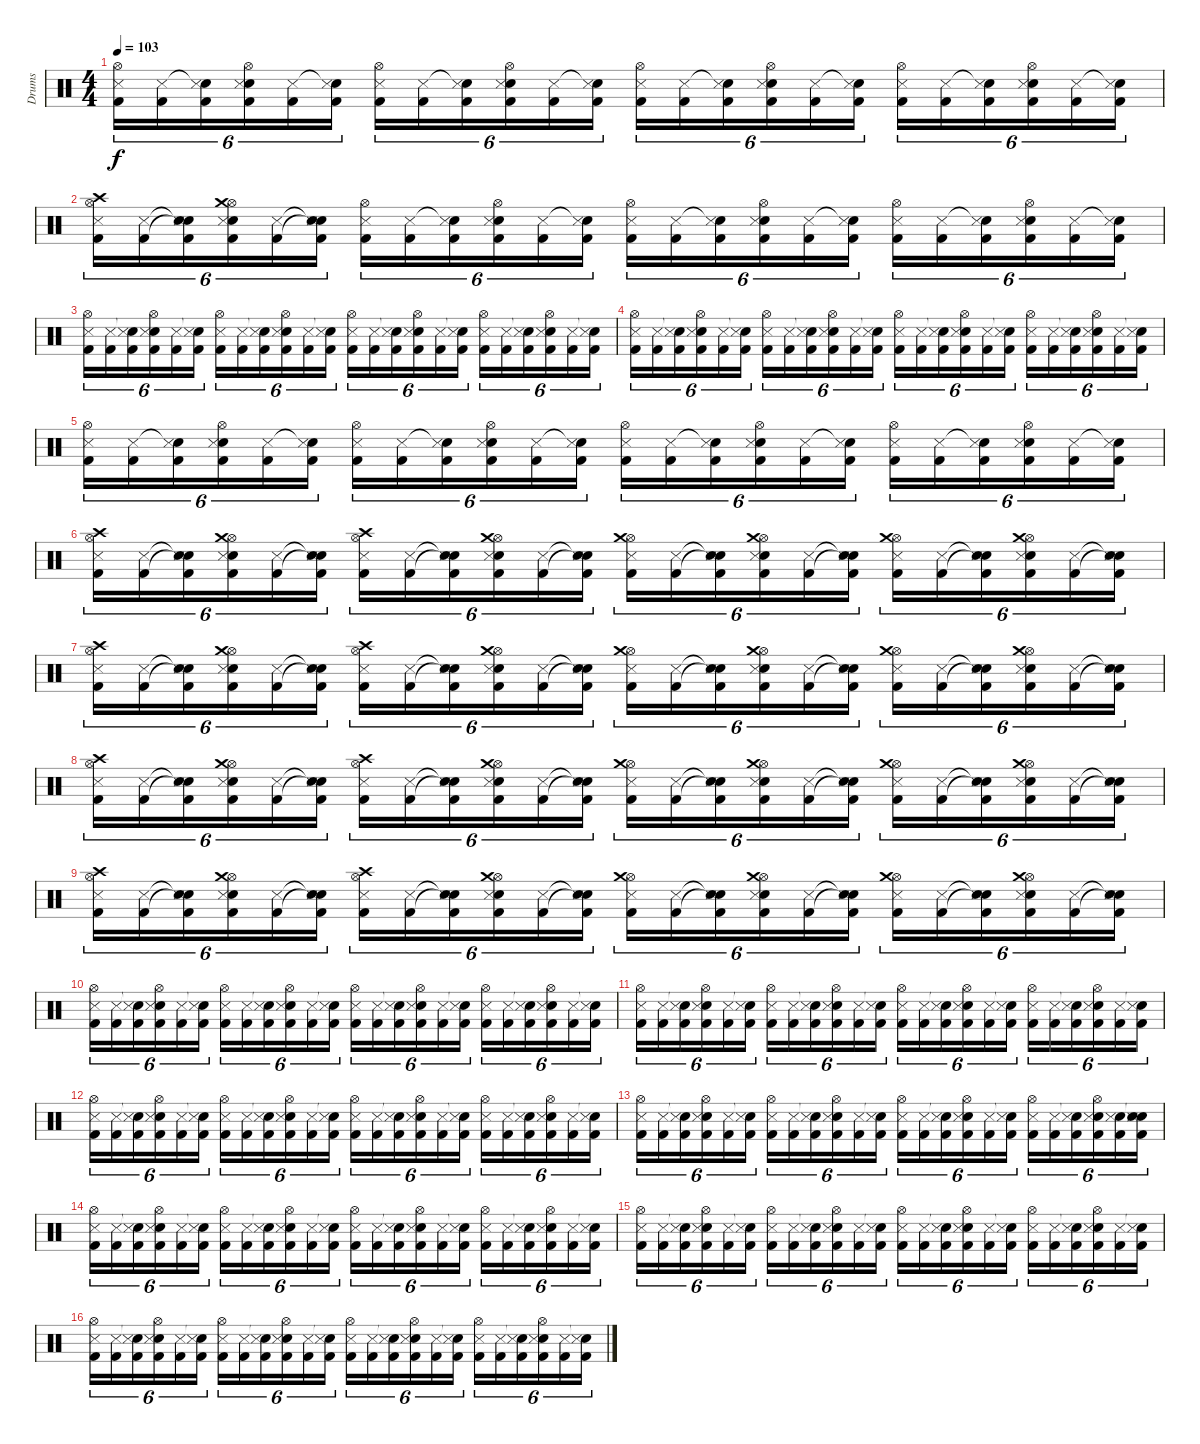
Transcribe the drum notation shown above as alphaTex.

\track ("Drums" "Drums") {instrument percussion}
\staff {score}
\articulation defaults
\ts (4 4)
\tempo 103
\clef neutral
\ks c
("Hi-Hat (open)" "Snare (side stick) 3" "Kick (hit) 2").16{tu (6 4) dy f} ("Snare (side stick) 3" "Kick (hit) 2").16{tu (6 4)} ("Snare (hit)"{t} "Snare (side stick) 3" "Kick (hit) 2").16{tu (6 4)} ("Hi-Hat (open)" "Electric Snare (hit)" "Snare (side stick) 3" "Kick (hit) 2").16{tu (6 4)} ("Snare (side stick) 3" "Kick (hit) 2").16{tu (6 4)} ("Snare (hit)"{t} "Snare (side stick) 3" "Kick (hit) 2").16{tu (6 4)} ("Hi-Hat (open)" "Snare (side stick) 3" "Kick (hit) 2").16{tu (6 4)} ("Snare (side stick) 3" "Kick (hit) 2").16{tu (6 4)} ("Snare (hit)"{t} "Snare (side stick) 3" "Kick (hit) 2").16{tu (6 4)} ("Hi-Hat (open)" "Electric Snare (hit)" "Snare (side stick) 3" "Kick (hit) 2").16{tu (6 4)} ("Snare (side stick) 3" "Kick (hit) 2").16{tu (6 4)} ("Snare (hit)"{t} "Snare (side stick) 3" "Kick (hit) 2").16{tu (6 4)} ("Hi-Hat (open)" "Snare (side stick) 3" "Kick (hit) 2").16{tu (6 4)} ("Snare (side stick) 3" "Kick (hit) 2").16{tu (6 4)} ("Snare (hit)"{t} "Snare (side stick) 3" "Kick (hit) 2").16{tu (6 4)} ("Hi-Hat (open)" "Electric Snare (hit)" "Snare (side stick) 3" "Kick (hit) 2").16{tu (6 4)} ("Snare (side stick) 3" "Kick (hit) 2").16{tu (6 4)} ("Snare (hit)"{t} "Snare (side stick) 3" "Kick (hit) 2").16{tu (6 4)} ("Hi-Hat (open)" "Snare (side stick) 3" "Kick (hit) 2").16{tu (6 4)} ("Snare (side stick) 3" "Kick (hit) 2").16{tu (6 4)} ("Snare (hit)"{t} "Snare (side stick) 3" "Kick (hit) 2").16{tu (6 4)} ("Hi-Hat (open)" "Electric Snare (hit)" "Snare (side stick) 3" "Kick (hit) 2").16{tu (6 4)} ("Snare (side stick) 3" "Kick (hit) 2").16{tu (6 4)} ("Snare (hit)"{t} "Snare (side stick) 3" "Kick (hit) 2").16{tu (6 4)} |
("Hi-Hat (open)" "Crash high (hit)" "Snare (side stick) 3" "Kick (hit) 2").16{tu (6 4)} ("Snare (side stick) 3" "Kick (hit) 2").16{tu (6 4)} ("Snare (hit)"{t} "Snare (hit)"{t} "Snare (side stick) 3" "Kick (hit) 2").16{tu (6 4)} ("Hi-Hat (open)" "Electric Snare (hit)" "Crash medium (hit)" "Snare (side stick) 3" "Kick (hit) 2").16{tu (6 4)} ("Snare (side stick) 3" "Kick (hit) 2").16{tu (6 4)} ("Snare (hit)"{t} "Snare (hit)"{t} "Snare (side stick) 3" "Kick (hit) 2").16{tu (6 4)} ("Hi-Hat (open)" "Snare (side stick) 3" "Kick (hit) 2").16{tu (6 4)} ("Snare (side stick) 3" "Kick (hit) 2").16{tu (6 4)} ("Snare (hit)"{t} "Snare (side stick) 3" "Kick (hit) 2").16{tu (6 4)} ("Hi-Hat (open)" "Electric Snare (hit)" "Snare (side stick) 3" "Kick (hit) 2").16{tu (6 4)} ("Snare (side stick) 3" "Kick (hit) 2").16{tu (6 4)} ("Snare (hit)"{t} "Snare (side stick) 3" "Kick (hit) 2").16{tu (6 4)} ("Hi-Hat (open)" "Snare (side stick) 3" "Kick (hit) 2").16{tu (6 4)} ("Snare (side stick) 3" "Kick (hit) 2").16{tu (6 4)} ("Snare (hit)"{t} "Snare (side stick) 3" "Kick (hit) 2").16{tu (6 4)} ("Hi-Hat (open)" "Electric Snare (hit)" "Snare (side stick) 3" "Kick (hit) 2").16{tu (6 4)} ("Snare (side stick) 3" "Kick (hit) 2").16{tu (6 4)} ("Snare (hit)"{t} "Snare (side stick) 3" "Kick (hit) 2").16{tu (6 4)} ("Hi-Hat (open)" "Snare (side stick) 3" "Kick (hit) 2").16{tu (6 4)} ("Snare (side stick) 3" "Kick (hit) 2").16{tu (6 4)} ("Snare (hit)"{t} "Snare (side stick) 3" "Kick (hit) 2").16{tu (6 4)} ("Hi-Hat (open)" "Electric Snare (hit)" "Snare (side stick) 3" "Kick (hit) 2").16{tu (6 4)} ("Snare (side stick) 3" "Kick (hit) 2").16{tu (6 4)} ("Snare (hit)"{t} "Snare (side stick) 3" "Kick (hit) 2").16{tu (6 4)} |
("Hi-Hat (open)" "Snare (side stick) 3" "Kick (hit) 2").16{tu (6 4)} ("Snare (side stick) 3" "Kick (hit) 2").16{tu (6 4)} ("Snare (hit)"{t} "Snare (side stick) 3" "Kick (hit) 2").16{tu (6 4)} ("Hi-Hat (open)" "Electric Snare (hit)" "Snare (side stick) 3" "Kick (hit) 2").16{tu (6 4)} ("Snare (side stick) 3" "Kick (hit) 2").16{tu (6 4)} ("Snare (hit)"{t} "Snare (side stick) 3" "Kick (hit) 2").16{tu (6 4)} ("Hi-Hat (open)" "Snare (side stick) 3" "Kick (hit) 2").16{tu (6 4)} ("Snare (side stick) 3" "Kick (hit) 2").16{tu (6 4)} ("Snare (hit)"{t} "Snare (side stick) 3" "Kick (hit) 2").16{tu (6 4)} ("Hi-Hat (open)" "Electric Snare (hit)" "Snare (side stick) 3" "Kick (hit) 2").16{tu (6 4)} ("Snare (side stick) 3" "Kick (hit) 2").16{tu (6 4)} ("Snare (hit)"{t} "Snare (side stick) 3" "Kick (hit) 2").16{tu (6 4)} ("Hi-Hat (open)" "Snare (side stick) 3" "Kick (hit) 2").16{tu (6 4)} ("Snare (side stick) 3" "Kick (hit) 2").16{tu (6 4)} ("Snare (hit)"{t} "Snare (side stick) 3" "Kick (hit) 2").16{tu (6 4)} ("Hi-Hat (open)" "Electric Snare (hit)" "Snare (side stick) 3" "Kick (hit) 2").16{tu (6 4)} ("Snare (side stick) 3" "Kick (hit) 2").16{tu (6 4)} ("Snare (hit)"{t} "Snare (side stick) 3" "Kick (hit) 2").16{tu (6 4)} ("Hi-Hat (open)" "Snare (side stick) 3" "Kick (hit) 2").16{tu (6 4)} ("Snare (side stick) 3" "Kick (hit) 2").16{tu (6 4)} ("Snare (hit)"{t} "Snare (side stick) 3" "Kick (hit) 2").16{tu (6 4)} ("Hi-Hat (open)" "Electric Snare (hit)" "Snare (side stick) 3" "Kick (hit) 2").16{tu (6 4)} ("Snare (side stick) 3" "Kick (hit) 2").16{tu (6 4)} ("Snare (hit)"{t} "Snare (side stick) 3" "Kick (hit) 2").16{tu (6 4)} |
("Hi-Hat (open)" "Snare (side stick) 3" "Kick (hit) 2").16{tu (6 4)} ("Snare (side stick) 3" "Kick (hit) 2").16{tu (6 4)} ("Snare (hit)"{t} "Snare (side stick) 3" "Kick (hit) 2").16{tu (6 4)} ("Hi-Hat (open)" "Electric Snare (hit)" "Snare (side stick) 3" "Kick (hit) 2").16{tu (6 4)} ("Snare (side stick) 3" "Kick (hit) 2").16{tu (6 4)} ("Snare (hit)"{t} "Snare (side stick) 3" "Kick (hit) 2").16{tu (6 4)} ("Hi-Hat (open)" "Snare (side stick) 3" "Kick (hit) 2").16{tu (6 4)} ("Snare (side stick) 3" "Kick (hit) 2").16{tu (6 4)} ("Snare (hit)"{t} "Snare (side stick) 3" "Kick (hit) 2").16{tu (6 4)} ("Hi-Hat (open)" "Electric Snare (hit)" "Snare (side stick) 3" "Kick (hit) 2").16{tu (6 4)} ("Snare (side stick) 3" "Kick (hit) 2").16{tu (6 4)} ("Snare (hit)"{t} "Snare (side stick) 3" "Kick (hit) 2").16{tu (6 4)} ("Hi-Hat (open)" "Snare (side stick) 3" "Kick (hit) 2").16{tu (6 4)} ("Snare (side stick) 3" "Kick (hit) 2").16{tu (6 4)} ("Snare (hit)"{t} "Snare (side stick) 3" "Kick (hit) 2").16{tu (6 4)} ("Hi-Hat (open)" "Electric Snare (hit)" "Snare (side stick) 3" "Kick (hit) 2").16{tu (6 4)} ("Snare (side stick) 3" "Kick (hit) 2").16{tu (6 4)} ("Snare (hit)"{t} "Snare (side stick) 3" "Kick (hit) 2").16{tu (6 4)} ("Hi-Hat (open)" "Snare (side stick) 3" "Kick (hit) 2").16{tu (6 4)} ("Snare (side stick) 3" "Kick (hit) 2").16{tu (6 4)} ("Snare (hit)"{t} "Snare (side stick) 3" "Kick (hit) 2").16{tu (6 4)} ("Hi-Hat (open)" "Electric Snare (hit)" "Snare (side stick) 3" "Kick (hit) 2").16{tu (6 4)} ("Snare (side stick) 3" "Kick (hit) 2").16{tu (6 4)} ("Snare (hit)"{t} "Snare (side stick) 3" "Kick (hit) 2").16{tu (6 4)} |
("Hi-Hat (open)" "Snare (side stick) 3" "Kick (hit) 2").16{tu (6 4)} ("Snare (side stick) 3" "Kick (hit) 2").16{tu (6 4)} ("Snare (hit)"{t} "Snare (side stick) 3" "Kick (hit) 2").16{tu (6 4)} ("Hi-Hat (open)" "Electric Snare (hit)" "Snare (side stick) 3" "Kick (hit) 2").16{tu (6 4)} ("Snare (side stick) 3" "Kick (hit) 2").16{tu (6 4)} ("Snare (hit)"{t} "Snare (side stick) 3" "Kick (hit) 2").16{tu (6 4)} ("Hi-Hat (open)" "Snare (side stick) 3" "Kick (hit) 2").16{tu (6 4)} ("Snare (side stick) 3" "Kick (hit) 2").16{tu (6 4)} ("Snare (hit)"{t} "Snare (side stick) 3" "Kick (hit) 2").16{tu (6 4)} ("Hi-Hat (open)" "Electric Snare (hit)" "Snare (side stick) 3" "Kick (hit) 2").16{tu (6 4)} ("Snare (side stick) 3" "Kick (hit) 2").16{tu (6 4)} ("Snare (hit)"{t} "Snare (side stick) 3" "Kick (hit) 2").16{tu (6 4)} ("Hi-Hat (open)" "Snare (side stick) 3" "Kick (hit) 2").16{tu (6 4)} ("Snare (side stick) 3" "Kick (hit) 2").16{tu (6 4)} ("Snare (hit)"{t} "Snare (side stick) 3" "Kick (hit) 2").16{tu (6 4)} ("Hi-Hat (open)" "Electric Snare (hit)" "Snare (side stick) 3" "Kick (hit) 2").16{tu (6 4)} ("Snare (side stick) 3" "Kick (hit) 2").16{tu (6 4)} ("Snare (hit)"{t} "Snare (side stick) 3" "Kick (hit) 2").16{tu (6 4)} ("Hi-Hat (open)" "Snare (side stick) 3" "Kick (hit) 2").16{tu (6 4)} ("Snare (side stick) 3" "Kick (hit) 2").16{tu (6 4)} ("Snare (hit)"{t} "Snare (side stick) 3" "Kick (hit) 2").16{tu (6 4)} ("Hi-Hat (open)" "Electric Snare (hit)" "Snare (side stick) 3" "Kick (hit) 2").16{tu (6 4)} ("Snare (side stick) 3" "Kick (hit) 2").16{tu (6 4)} ("Snare (hit)"{t} "Snare (side stick) 3" "Kick (hit) 2").16{tu (6 4)} |
("Hi-Hat (open)" "Crash high (hit)" "Snare (side stick) 3" "Kick (hit) 2").16{tu (6 4)} ("Snare (side stick) 3" "Kick (hit) 2").16{tu (6 4)} ("Snare (hit)"{t} "Snare (hit)"{t} "Snare (side stick) 3" "Kick (hit) 2").16{tu (6 4)} ("Hi-Hat (open)" "Electric Snare (hit)" "Crash medium (hit)" "Snare (side stick) 3" "Kick (hit) 2").16{tu (6 4)} ("Snare (side stick) 3" "Kick (hit) 2").16{tu (6 4)} ("Snare (hit)"{t} "Snare (hit)"{t} "Snare (side stick) 3" "Kick (hit) 2").16{tu (6 4)} ("Hi-Hat (open)" "Crash high (hit)" "Snare (side stick) 3" "Kick (hit) 2").16{tu (6 4)} ("Snare (side stick) 3" "Kick (hit) 2").16{tu (6 4)} ("Snare (hit)"{t} "Snare (hit)"{t} "Snare (side stick) 3" "Kick (hit) 2").16{tu (6 4)} ("Hi-Hat (open)" "Electric Snare (hit)" "Crash medium (hit)" "Snare (side stick) 3" "Kick (hit) 2").16{tu (6 4)} ("Snare (side stick) 3" "Kick (hit) 2").16{tu (6 4)} ("Snare (hit)"{t} "Snare (hit)"{t} "Snare (side stick) 3" "Kick (hit) 2").16{tu (6 4)} ("Hi-Hat (open)" "Crash medium (hit)" "Snare (side stick) 3" "Kick (hit) 2").16{tu (6 4)} ("Snare (side stick) 3" "Kick (hit) 2").16{tu (6 4)} ("Snare (hit)"{t} "Snare (hit)"{t} "Snare (side stick) 3" "Kick (hit) 2").16{tu (6 4)} ("Hi-Hat (open)" "Electric Snare (hit)" "Crash medium (hit)" "Snare (side stick) 3" "Kick (hit) 2").16{tu (6 4)} ("Snare (side stick) 3" "Kick (hit) 2").16{tu (6 4)} ("Snare (hit)"{t} "Snare (hit)"{t} "Snare (side stick) 3" "Kick (hit) 2").16{tu (6 4)} ("Hi-Hat (open)" "Crash medium (hit)" "Snare (side stick) 3" "Kick (hit) 2").16{tu (6 4)} ("Snare (side stick) 3" "Kick (hit) 2").16{tu (6 4)} ("Snare (hit)"{t} "Snare (hit)"{t} "Snare (side stick) 3" "Kick (hit) 2").16{tu (6 4)} ("Hi-Hat (open)" "Electric Snare (hit)" "Crash medium (hit)" "Snare (side stick) 3" "Kick (hit) 2").16{tu (6 4)} ("Snare (side stick) 3" "Kick (hit) 2").16{tu (6 4)} ("Snare (hit)"{t} "Snare (hit)"{t} "Snare (side stick) 3" "Kick (hit) 2").16{tu (6 4)} |
("Hi-Hat (open)" "Crash high (hit)" "Snare (side stick) 3" "Kick (hit) 2").16{tu (6 4)} ("Snare (side stick) 3" "Kick (hit) 2").16{tu (6 4)} ("Snare (hit)"{t} "Snare (hit)"{t} "Snare (side stick) 3" "Kick (hit) 2").16{tu (6 4)} ("Hi-Hat (open)" "Electric Snare (hit)" "Crash medium (hit)" "Snare (side stick) 3" "Kick (hit) 2").16{tu (6 4)} ("Snare (side stick) 3" "Kick (hit) 2").16{tu (6 4)} ("Snare (hit)"{t} "Snare (hit)"{t} "Snare (side stick) 3" "Kick (hit) 2").16{tu (6 4)} ("Hi-Hat (open)" "Crash high (hit)" "Snare (side stick) 3" "Kick (hit) 2").16{tu (6 4)} ("Snare (side stick) 3" "Kick (hit) 2").16{tu (6 4)} ("Snare (hit)"{t} "Snare (hit)"{t} "Snare (side stick) 3" "Kick (hit) 2").16{tu (6 4)} ("Hi-Hat (open)" "Electric Snare (hit)" "Crash medium (hit)" "Snare (side stick) 3" "Kick (hit) 2").16{tu (6 4)} ("Snare (side stick) 3" "Kick (hit) 2").16{tu (6 4)} ("Snare (hit)"{t} "Snare (hit)"{t} "Snare (side stick) 3" "Kick (hit) 2").16{tu (6 4)} ("Hi-Hat (open)" "Crash medium (hit)" "Snare (side stick) 3" "Kick (hit) 2").16{tu (6 4)} ("Snare (side stick) 3" "Kick (hit) 2").16{tu (6 4)} ("Snare (hit)"{t} "Snare (hit)"{t} "Snare (side stick) 3" "Kick (hit) 2").16{tu (6 4)} ("Hi-Hat (open)" "Electric Snare (hit)" "Crash medium (hit)" "Snare (side stick) 3" "Kick (hit) 2").16{tu (6 4)} ("Snare (side stick) 3" "Kick (hit) 2").16{tu (6 4)} ("Snare (hit)"{t} "Snare (hit)"{t} "Snare (side stick) 3" "Kick (hit) 2").16{tu (6 4)} ("Hi-Hat (open)" "Crash medium (hit)" "Snare (side stick) 3" "Kick (hit) 2").16{tu (6 4)} ("Snare (side stick) 3" "Kick (hit) 2").16{tu (6 4)} ("Snare (hit)"{t} "Snare (hit)"{t} "Snare (side stick) 3" "Kick (hit) 2").16{tu (6 4)} ("Hi-Hat (open)" "Electric Snare (hit)" "Crash medium (hit)" "Snare (side stick) 3" "Kick (hit) 2").16{tu (6 4)} ("Snare (side stick) 3" "Kick (hit) 2").16{tu (6 4)} ("Snare (hit)"{t} "Snare (hit)"{t} "Snare (side stick) 3" "Kick (hit) 2").16{tu (6 4)} |
("Hi-Hat (open)" "Crash high (hit)" "Snare (side stick) 3" "Kick (hit) 2").16{tu (6 4)} ("Snare (side stick) 3" "Kick (hit) 2").16{tu (6 4)} ("Snare (hit)"{t} "Snare (hit)"{t} "Snare (side stick) 3" "Kick (hit) 2").16{tu (6 4)} ("Hi-Hat (open)" "Electric Snare (hit)" "Crash medium (hit)" "Snare (side stick) 3" "Kick (hit) 2").16{tu (6 4)} ("Snare (side stick) 3" "Kick (hit) 2").16{tu (6 4)} ("Snare (hit)"{t} "Snare (hit)"{t} "Snare (side stick) 3" "Kick (hit) 2").16{tu (6 4)} ("Hi-Hat (open)" "Crash high (hit)" "Snare (side stick) 3" "Kick (hit) 2").16{tu (6 4)} ("Snare (side stick) 3" "Kick (hit) 2").16{tu (6 4)} ("Snare (hit)"{t} "Snare (hit)"{t} "Snare (side stick) 3" "Kick (hit) 2").16{tu (6 4)} ("Hi-Hat (open)" "Electric Snare (hit)" "Crash medium (hit)" "Snare (side stick) 3" "Kick (hit) 2").16{tu (6 4)} ("Snare (side stick) 3" "Kick (hit) 2").16{tu (6 4)} ("Snare (hit)"{t} "Snare (hit)"{t} "Snare (side stick) 3" "Kick (hit) 2").16{tu (6 4)} ("Hi-Hat (open)" "Crash medium (hit)" "Snare (side stick) 3" "Kick (hit) 2").16{tu (6 4)} ("Snare (side stick) 3" "Kick (hit) 2").16{tu (6 4)} ("Snare (hit)"{t} "Snare (hit)"{t} "Snare (side stick) 3" "Kick (hit) 2").16{tu (6 4)} ("Hi-Hat (open)" "Electric Snare (hit)" "Crash medium (hit)" "Snare (side stick) 3" "Kick (hit) 2").16{tu (6 4)} ("Snare (side stick) 3" "Kick (hit) 2").16{tu (6 4)} ("Snare (hit)"{t} "Snare (hit)"{t} "Snare (side stick) 3" "Kick (hit) 2").16{tu (6 4)} ("Hi-Hat (open)" "Crash medium (hit)" "Snare (side stick) 3" "Kick (hit) 2").16{tu (6 4)} ("Snare (side stick) 3" "Kick (hit) 2").16{tu (6 4)} ("Snare (hit)"{t} "Snare (hit)"{t} "Snare (side stick) 3" "Kick (hit) 2").16{tu (6 4)} ("Hi-Hat (open)" "Electric Snare (hit)" "Crash medium (hit)" "Snare (side stick) 3" "Kick (hit) 2").16{tu (6 4)} ("Snare (side stick) 3" "Kick (hit) 2").16{tu (6 4)} ("Snare (hit)"{t} "Snare (hit)"{t} "Snare (side stick) 3" "Kick (hit) 2").16{tu (6 4)} |
("Hi-Hat (open)" "Crash high (hit)" "Snare (side stick) 3" "Kick (hit) 2").16{tu (6 4)} ("Snare (side stick) 3" "Kick (hit) 2").16{tu (6 4)} ("Snare (hit)"{t} "Snare (hit)"{t} "Snare (side stick) 3" "Kick (hit) 2").16{tu (6 4)} ("Hi-Hat (open)" "Electric Snare (hit)" "Crash medium (hit)" "Snare (side stick) 3" "Kick (hit) 2").16{tu (6 4)} ("Snare (side stick) 3" "Kick (hit) 2").16{tu (6 4)} ("Snare (hit)"{t} "Snare (hit)"{t} "Snare (side stick) 3" "Kick (hit) 2").16{tu (6 4)} ("Hi-Hat (open)" "Crash high (hit)" "Snare (side stick) 3" "Kick (hit) 2").16{tu (6 4)} ("Snare (side stick) 3" "Kick (hit) 2").16{tu (6 4)} ("Snare (hit)"{t} "Snare (hit)"{t} "Snare (side stick) 3" "Kick (hit) 2").16{tu (6 4)} ("Hi-Hat (open)" "Electric Snare (hit)" "Crash medium (hit)" "Snare (side stick) 3" "Kick (hit) 2").16{tu (6 4)} ("Snare (side stick) 3" "Kick (hit) 2").16{tu (6 4)} ("Snare (hit)"{t} "Snare (hit)"{t} "Snare (side stick) 3" "Kick (hit) 2").16{tu (6 4)} ("Hi-Hat (open)" "Crash medium (hit)" "Snare (side stick) 3" "Kick (hit) 2").16{tu (6 4)} ("Snare (side stick) 3" "Kick (hit) 2").16{tu (6 4)} ("Snare (hit)"{t} "Snare (hit)"{t} "Snare (side stick) 3" "Kick (hit) 2").16{tu (6 4)} ("Hi-Hat (open)" "Electric Snare (hit)" "Crash medium (hit)" "Snare (side stick) 3" "Kick (hit) 2").16{tu (6 4)} ("Snare (side stick) 3" "Kick (hit) 2").16{tu (6 4)} ("Snare (hit)"{t} "Snare (hit)"{t} "Snare (side stick) 3" "Kick (hit) 2").16{tu (6 4)} ("Hi-Hat (open)" "Crash medium (hit)" "Snare (side stick) 3" "Kick (hit) 2").16{tu (6 4)} ("Snare (side stick) 3" "Kick (hit) 2").16{tu (6 4)} ("Snare (hit)"{t} "Snare (hit)"{t} "Snare (side stick) 3" "Kick (hit) 2").16{tu (6 4)} ("Hi-Hat (open)" "Electric Snare (hit)" "Crash medium (hit)" "Snare (side stick) 3" "Kick (hit) 2").16{tu (6 4)} ("Snare (side stick) 3" "Kick (hit) 2").16{tu (6 4)} ("Snare (hit)"{t} "Snare (hit)"{t} "Snare (side stick) 3" "Kick (hit) 2").16{tu (6 4)} |
("Hi-Hat (open)" "Snare (side stick) 3" "Kick (hit) 2").16{tu (6 4)} ("Snare (side stick) 3" "Kick (hit) 2").16{tu (6 4)} ("Snare (hit)"{t} "Snare (side stick) 3" "Kick (hit) 2").16{tu (6 4)} ("Hi-Hat (open)" "Electric Snare (hit)" "Snare (side stick) 3" "Kick (hit) 2").16{tu (6 4)} ("Snare (side stick) 3" "Kick (hit) 2").16{tu (6 4)} ("Snare (hit)"{t} "Snare (side stick) 3" "Kick (hit) 2").16{tu (6 4)} ("Hi-Hat (open)" "Snare (side stick) 3" "Kick (hit) 2").16{tu (6 4)} ("Snare (side stick) 3" "Kick (hit) 2").16{tu (6 4)} ("Snare (hit)"{t} "Snare (side stick) 3" "Kick (hit) 2").16{tu (6 4)} ("Hi-Hat (open)" "Electric Snare (hit)" "Snare (side stick) 3" "Kick (hit) 2").16{tu (6 4)} ("Snare (side stick) 3" "Kick (hit) 2").16{tu (6 4)} ("Snare (hit)"{t} "Snare (side stick) 3" "Kick (hit) 2").16{tu (6 4)} ("Hi-Hat (open)" "Snare (side stick) 3" "Kick (hit) 2").16{tu (6 4)} ("Snare (side stick) 3" "Kick (hit) 2").16{tu (6 4)} ("Snare (hit)"{t} "Snare (side stick) 3" "Kick (hit) 2").16{tu (6 4)} ("Hi-Hat (open)" "Electric Snare (hit)" "Snare (side stick) 3" "Kick (hit) 2").16{tu (6 4)} ("Snare (side stick) 3" "Kick (hit) 2").16{tu (6 4)} ("Snare (hit)"{t} "Snare (side stick) 3" "Kick (hit) 2").16{tu (6 4)} ("Hi-Hat (open)" "Snare (side stick) 3" "Kick (hit) 2").16{tu (6 4)} ("Snare (side stick) 3" "Kick (hit) 2").16{tu (6 4)} ("Snare (hit)"{t} "Snare (side stick) 3" "Kick (hit) 2").16{tu (6 4)} ("Hi-Hat (open)" "Electric Snare (hit)" "Snare (side stick) 3" "Kick (hit) 2").16{tu (6 4)} ("Snare (side stick) 3" "Kick (hit) 2").16{tu (6 4)} ("Snare (hit)"{t} "Snare (side stick) 3" "Kick (hit) 2").16{tu (6 4)} |
("Hi-Hat (open)" "Snare (side stick) 3" "Kick (hit) 2").16{tu (6 4)} ("Snare (side stick) 3" "Kick (hit) 2").16{tu (6 4)} ("Snare (hit)"{t} "Snare (side stick) 3" "Kick (hit) 2").16{tu (6 4)} ("Hi-Hat (open)" "Electric Snare (hit)" "Snare (side stick) 3" "Kick (hit) 2").16{tu (6 4)} ("Snare (side stick) 3" "Kick (hit) 2").16{tu (6 4)} ("Snare (hit)"{t} "Snare (side stick) 3" "Kick (hit) 2").16{tu (6 4)} ("Hi-Hat (open)" "Snare (side stick) 3" "Kick (hit) 2").16{tu (6 4)} ("Snare (side stick) 3" "Kick (hit) 2").16{tu (6 4)} ("Snare (hit)"{t} "Snare (side stick) 3" "Kick (hit) 2").16{tu (6 4)} ("Hi-Hat (open)" "Electric Snare (hit)" "Snare (side stick) 3" "Kick (hit) 2").16{tu (6 4)} ("Snare (side stick) 3" "Kick (hit) 2").16{tu (6 4)} ("Snare (hit)"{t} "Snare (side stick) 3" "Kick (hit) 2").16{tu (6 4)} ("Hi-Hat (open)" "Snare (side stick) 3" "Kick (hit) 2").16{tu (6 4)} ("Snare (side stick) 3" "Kick (hit) 2").16{tu (6 4)} ("Snare (hit)"{t} "Snare (side stick) 3" "Kick (hit) 2").16{tu (6 4)} ("Hi-Hat (open)" "Electric Snare (hit)" "Snare (side stick) 3" "Kick (hit) 2").16{tu (6 4)} ("Snare (side stick) 3" "Kick (hit) 2").16{tu (6 4)} ("Snare (hit)"{t} "Snare (side stick) 3" "Kick (hit) 2").16{tu (6 4)} ("Hi-Hat (open)" "Snare (side stick) 3" "Kick (hit) 2").16{tu (6 4)} ("Snare (side stick) 3" "Kick (hit) 2").16{tu (6 4)} ("Snare (hit)"{t} "Snare (side stick) 3" "Kick (hit) 2").16{tu (6 4)} ("Hi-Hat (open)" "Electric Snare (hit)" "Snare (side stick) 3" "Kick (hit) 2").16{tu (6 4)} ("Snare (side stick) 3" "Kick (hit) 2").16{tu (6 4)} ("Snare (hit)"{t} "Snare (side stick) 3" "Kick (hit) 2").16{tu (6 4)} |
("Hi-Hat (open)" "Snare (side stick) 3" "Kick (hit) 2").16{tu (6 4)} ("Snare (side stick) 3" "Kick (hit) 2").16{tu (6 4)} ("Snare (hit)"{t} "Snare (side stick) 3" "Kick (hit) 2").16{tu (6 4)} ("Hi-Hat (open)" "Electric Snare (hit)" "Snare (side stick) 3" "Kick (hit) 2").16{tu (6 4)} ("Snare (side stick) 3" "Kick (hit) 2").16{tu (6 4)} ("Snare (hit)"{t} "Snare (side stick) 3" "Kick (hit) 2").16{tu (6 4)} ("Hi-Hat (open)" "Snare (side stick) 3" "Kick (hit) 2").16{tu (6 4)} ("Snare (side stick) 3" "Kick (hit) 2").16{tu (6 4)} ("Snare (hit)"{t} "Snare (side stick) 3" "Kick (hit) 2").16{tu (6 4)} ("Hi-Hat (open)" "Electric Snare (hit)" "Snare (side stick) 3" "Kick (hit) 2").16{tu (6 4)} ("Snare (side stick) 3" "Kick (hit) 2").16{tu (6 4)} ("Snare (hit)"{t} "Snare (side stick) 3" "Kick (hit) 2").16{tu (6 4)} ("Hi-Hat (open)" "Snare (side stick) 3" "Kick (hit) 2").16{tu (6 4)} ("Snare (side stick) 3" "Kick (hit) 2").16{tu (6 4)} ("Snare (hit)"{t} "Snare (side stick) 3" "Kick (hit) 2").16{tu (6 4)} ("Hi-Hat (open)" "Electric Snare (hit)" "Snare (side stick) 3" "Kick (hit) 2").16{tu (6 4)} ("Snare (side stick) 3" "Kick (hit) 2").16{tu (6 4)} ("Snare (hit)"{t} "Snare (side stick) 3" "Kick (hit) 2").16{tu (6 4)} ("Hi-Hat (open)" "Snare (side stick) 3" "Kick (hit) 2").16{tu (6 4)} ("Snare (side stick) 3" "Kick (hit) 2").16{tu (6 4)} ("Snare (hit)"{t} "Snare (side stick) 3" "Kick (hit) 2").16{tu (6 4)} ("Hi-Hat (open)" "Electric Snare (hit)" "Snare (side stick) 3" "Kick (hit) 2").16{tu (6 4)} ("Snare (side stick) 3" "Kick (hit) 2").16{tu (6 4)} ("Snare (hit)"{t} "Snare (side stick) 3" "Kick (hit) 2").16{tu (6 4)} |
("Hi-Hat (open)" "Snare (side stick) 3" "Kick (hit) 2").16{tu (6 4)} ("Snare (side stick) 3" "Kick (hit) 2").16{tu (6 4)} ("Snare (hit)"{t} "Snare (side stick) 3" "Kick (hit) 2").16{tu (6 4)} ("Hi-Hat (open)" "Electric Snare (hit)" "Snare (side stick) 3" "Kick (hit) 2").16{tu (6 4)} ("Snare (side stick) 3" "Kick (hit) 2").16{tu (6 4)} ("Snare (hit)"{t} "Snare (side stick) 3" "Kick (hit) 2").16{tu (6 4)} ("Hi-Hat (open)" "Snare (side stick) 3" "Kick (hit) 2").16{tu (6 4)} ("Snare (side stick) 3" "Kick (hit) 2").16{tu (6 4)} ("Snare (hit)"{t} "Snare (side stick) 3" "Kick (hit) 2").16{tu (6 4)} ("Hi-Hat (open)" "Electric Snare (hit)" "Snare (side stick) 3" "Kick (hit) 2").16{tu (6 4)} ("Snare (side stick) 3" "Kick (hit) 2").16{tu (6 4)} ("Snare (hit)"{t} "Snare (side stick) 3" "Kick (hit) 2").16{tu (6 4)} ("Hi-Hat (open)" "Snare (side stick) 3" "Kick (hit) 2").16{tu (6 4)} ("Snare (side stick) 3" "Kick (hit) 2").16{tu (6 4)} ("Snare (hit)"{t} "Snare (side stick) 3" "Kick (hit) 2").16{tu (6 4)} ("Hi-Hat (open)" "Electric Snare (hit)" "Snare (side stick) 3" "Kick (hit) 2").16{tu (6 4)} ("Snare (side stick) 3" "Kick (hit) 2").16{tu (6 4)} ("Snare (hit)"{t} "Snare (side stick) 3" "Kick (hit) 2").16{tu (6 4)} ("Hi-Hat (open)" "Snare (side stick) 3" "Kick (hit) 2").16{tu (6 4)} ("Snare (side stick) 3" "Kick (hit) 2").16{tu (6 4)} ("Snare (hit)"{t} "Snare (side stick) 3" "Kick (hit) 2").16{tu (6 4)} ("Hi-Hat (open)" "Electric Snare (hit)" "Snare (side stick) 3" "Kick (hit) 2").16{tu (6 4)} ("Electric Snare (hit)" "Snare (side stick) 3" "Kick (hit) 2").16{tu (6 4)} ("Snare (hit)"{t} "Electric Snare (hit)" "Snare (side stick) 3" "Kick (hit) 2").16{tu (6 4)} |
("Hi-Hat (open)" "Snare (side stick) 3" "Kick (hit) 2").16{tu (6 4)} ("Snare (side stick) 3" "Kick (hit) 2").16{tu (6 4)} ("Snare (hit)"{t} "Snare (side stick) 3" "Kick (hit) 2").16{tu (6 4)} ("Hi-Hat (open)" "Electric Snare (hit)" "Snare (side stick) 3" "Kick (hit) 2").16{tu (6 4)} ("Snare (side stick) 3" "Kick (hit) 2").16{tu (6 4)} ("Snare (hit)"{t} "Snare (side stick) 3" "Kick (hit) 2").16{tu (6 4)} ("Hi-Hat (open)" "Snare (side stick) 3" "Kick (hit) 2").16{tu (6 4)} ("Snare (side stick) 3" "Kick (hit) 2").16{tu (6 4)} ("Snare (hit)"{t} "Snare (side stick) 3" "Kick (hit) 2").16{tu (6 4)} ("Hi-Hat (open)" "Electric Snare (hit)" "Snare (side stick) 3" "Kick (hit) 2").16{tu (6 4)} ("Snare (side stick) 3" "Kick (hit) 2").16{tu (6 4)} ("Snare (hit)"{t} "Snare (side stick) 3" "Kick (hit) 2").16{tu (6 4)} ("Hi-Hat (open)" "Snare (side stick) 3" "Kick (hit) 2").16{tu (6 4)} ("Snare (side stick) 3" "Kick (hit) 2").16{tu (6 4)} ("Snare (hit)"{t} "Snare (side stick) 3" "Kick (hit) 2").16{tu (6 4)} ("Hi-Hat (open)" "Electric Snare (hit)" "Snare (side stick) 3" "Kick (hit) 2").16{tu (6 4)} ("Snare (side stick) 3" "Kick (hit) 2").16{tu (6 4)} ("Snare (hit)"{t} "Snare (side stick) 3" "Kick (hit) 2").16{tu (6 4)} ("Hi-Hat (open)" "Snare (side stick) 3" "Kick (hit) 2").16{tu (6 4)} ("Snare (side stick) 3" "Kick (hit) 2").16{tu (6 4)} ("Snare (hit)"{t} "Snare (side stick) 3" "Kick (hit) 2").16{tu (6 4)} ("Hi-Hat (open)" "Electric Snare (hit)" "Snare (side stick) 3" "Kick (hit) 2").16{tu (6 4)} ("Snare (side stick) 3" "Kick (hit) 2").16{tu (6 4)} ("Snare (hit)"{t} "Snare (side stick) 3" "Kick (hit) 2").16{tu (6 4)} |
("Hi-Hat (open)" "Snare (side stick) 3" "Kick (hit) 2").16{tu (6 4)} ("Snare (side stick) 3" "Kick (hit) 2").16{tu (6 4)} ("Snare (hit)"{t} "Snare (side stick) 3" "Kick (hit) 2").16{tu (6 4)} ("Hi-Hat (open)" "Electric Snare (hit)" "Snare (side stick) 3" "Kick (hit) 2").16{tu (6 4)} ("Snare (side stick) 3" "Kick (hit) 2").16{tu (6 4)} ("Snare (hit)"{t} "Snare (side stick) 3" "Kick (hit) 2").16{tu (6 4)} ("Hi-Hat (open)" "Snare (side stick) 3" "Kick (hit) 2").16{tu (6 4)} ("Snare (side stick) 3" "Kick (hit) 2").16{tu (6 4)} ("Snare (hit)"{t} "Snare (side stick) 3" "Kick (hit) 2").16{tu (6 4)} ("Hi-Hat (open)" "Electric Snare (hit)" "Snare (side stick) 3" "Kick (hit) 2").16{tu (6 4)} ("Snare (side stick) 3" "Kick (hit) 2").16{tu (6 4)} ("Snare (hit)"{t} "Snare (side stick) 3" "Kick (hit) 2").16{tu (6 4)} ("Hi-Hat (open)" "Snare (side stick) 3" "Kick (hit) 2").16{tu (6 4)} ("Snare (side stick) 3" "Kick (hit) 2").16{tu (6 4)} ("Snare (hit)"{t} "Snare (side stick) 3" "Kick (hit) 2").16{tu (6 4)} ("Hi-Hat (open)" "Electric Snare (hit)" "Snare (side stick) 3" "Kick (hit) 2").16{tu (6 4)} ("Snare (side stick) 3" "Kick (hit) 2").16{tu (6 4)} ("Snare (hit)"{t} "Snare (side stick) 3" "Kick (hit) 2").16{tu (6 4)} ("Hi-Hat (open)" "Snare (side stick) 3" "Kick (hit) 2").16{tu (6 4)} ("Snare (side stick) 3" "Kick (hit) 2").16{tu (6 4)} ("Snare (hit)"{t} "Snare (side stick) 3" "Kick (hit) 2").16{tu (6 4)} ("Hi-Hat (open)" "Electric Snare (hit)" "Snare (side stick) 3" "Kick (hit) 2").16{tu (6 4)} ("Snare (side stick) 3" "Kick (hit) 2").16{tu (6 4)} ("Snare (hit)"{t} "Snare (side stick) 3" "Kick (hit) 2").16{tu (6 4)} |
("Hi-Hat (open)" "Snare (side stick) 3" "Kick (hit) 2").16{tu (6 4)} ("Snare (side stick) 3" "Kick (hit) 2").16{tu (6 4)} ("Snare (hit)"{t} "Snare (side stick) 3" "Kick (hit) 2").16{tu (6 4)} ("Hi-Hat (open)" "Electric Snare (hit)" "Snare (side stick) 3" "Kick (hit) 2").16{tu (6 4)} ("Snare (side stick) 3" "Kick (hit) 2").16{tu (6 4)} ("Snare (hit)"{t} "Snare (side stick) 3" "Kick (hit) 2").16{tu (6 4)} ("Hi-Hat (open)" "Snare (side stick) 3" "Kick (hit) 2").16{tu (6 4)} ("Snare (side stick) 3" "Kick (hit) 2").16{tu (6 4)} ("Snare (hit)"{t} "Snare (side stick) 3" "Kick (hit) 2").16{tu (6 4)} ("Hi-Hat (open)" "Electric Snare (hit)" "Snare (side stick) 3" "Kick (hit) 2").16{tu (6 4)} ("Snare (side stick) 3" "Kick (hit) 2").16{tu (6 4)} ("Snare (hit)"{t} "Snare (side stick) 3" "Kick (hit) 2").16{tu (6 4)} ("Hi-Hat (open)" "Snare (side stick) 3" "Kick (hit) 2").16{tu (6 4)} ("Snare (side stick) 3" "Kick (hit) 2").16{tu (6 4)} ("Snare (hit)"{t} "Snare (side stick) 3" "Kick (hit) 2").16{tu (6 4)} ("Hi-Hat (open)" "Electric Snare (hit)" "Snare (side stick) 3" "Kick (hit) 2").16{tu (6 4)} ("Snare (side stick) 3" "Kick (hit) 2").16{tu (6 4)} ("Snare (hit)"{t} "Snare (side stick) 3" "Kick (hit) 2").16{tu (6 4)} ("Hi-Hat (open)" "Snare (side stick) 3" "Kick (hit) 2").16{tu (6 4)} ("Snare (side stick) 3" "Kick (hit) 2").16{tu (6 4)} ("Snare (hit)"{t} "Snare (side stick) 3" "Kick (hit) 2").16{tu (6 4)} ("Hi-Hat (open)" "Electric Snare (hit)" "Snare (side stick) 3" "Kick (hit) 2").16{tu (6 4)} ("Snare (side stick) 3" "Kick (hit) 2").16{tu (6 4)} ("Snare (hit)"{t} "Snare (side stick) 3" "Kick (hit) 2").16{tu (6 4)}
